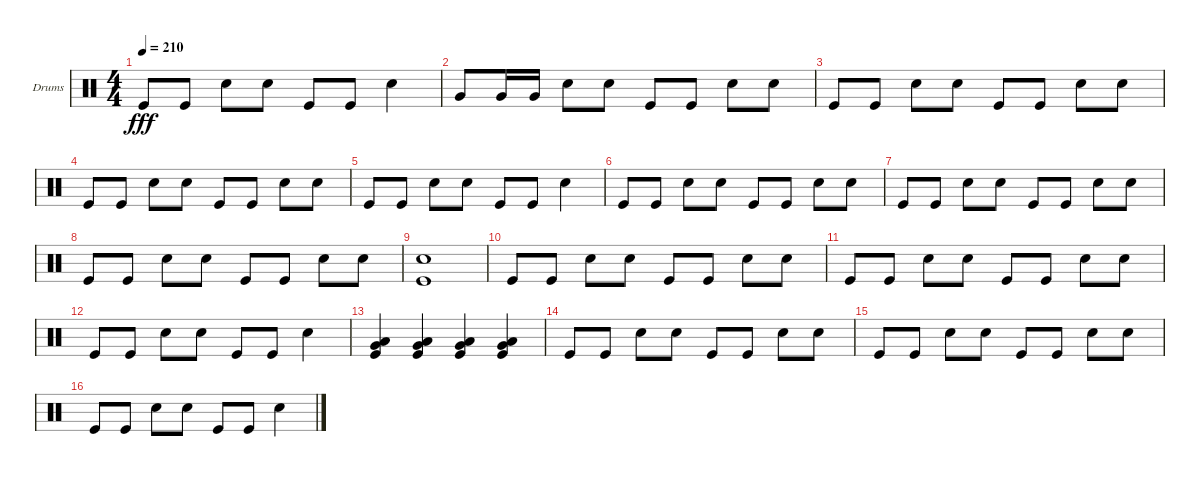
\defaultSystemsLayout 4
\bracketExtendMode groupsimilarinstruments
\firstSystemTrackNameOrientation horizontal
\otherSystemsTrackNameOrientation horizontal
\track ("Helders" "Drums") {instrument percussion}
\staff {score}
\articulation defaults
\ts (4 4)
\tempo 210
\clef neutral
\ks c "Kick (hit)".8{dy fff} "Kick (hit)".8 "Snare (hit) 2".8 "Snare (hit) 2".8 "Kick (hit)".8 "Kick (hit)".8 "Snare (hit) 2".4
|
"Very Low Tom (hit)".8 "Very Low Tom (hit)".16 "Very Low Tom (hit)".16 "Snare (hit) 2".8 "Snare (hit) 2".8 "Kick (hit)".8 "Kick (hit)".8 "Snare (hit) 2".8 "Snare (hit) 2".8 |
"Kick (hit)".8 "Kick (hit)".8 "Snare (hit) 2".8 "Snare (hit) 2".8 "Kick (hit)".8 "Kick (hit)".8 "Snare (hit) 2".8 "Snare (hit) 2".8 |
"Kick (hit)".8 "Kick (hit)".8 "Snare (hit) 2".8 "Snare (hit) 2".8 "Kick (hit)".8 "Kick (hit)".8 "Snare (hit) 2".8 "Snare (hit) 2".8 |
"Kick (hit)".8 "Kick (hit)".8 "Snare (hit) 2".8 "Snare (hit) 2".8 "Kick (hit)".8 "Kick (hit)".8 "Snare (hit) 2".4 |
"Kick (hit)".8 "Kick (hit)".8 "Snare (hit) 2".8 "Snare (hit) 2".8 "Kick (hit)".8 "Kick (hit)".8 "Snare (hit) 2".8 "Snare (hit) 2".8 |
"Kick (hit)".8 "Kick (hit)".8 "Snare (hit) 2".8 "Snare (hit) 2".8 "Kick (hit)".8 "Kick (hit)".8 "Snare (hit) 2".8 "Snare (hit) 2".8 |
"Kick (hit)".8 "Kick (hit)".8 "Snare (hit) 2".8 "Snare (hit) 2".8 "Kick (hit)".8 "Kick (hit)".8 "Snare (hit) 2".8 "Snare (hit) 2".8 |
("Kick (hit)" "Snare (hit) 2").1 |
"Kick (hit)".8 "Kick (hit)".8 "Snare (hit) 2".8 "Snare (hit) 2".8 "Kick (hit)".8 "Kick (hit)".8 "Snare (hit) 2".8 "Snare (hit) 2".8 |
"Kick (hit)".8 "Kick (hit)".8 "Snare (hit) 2".8 "Snare (hit) 2".8 "Kick (hit)".8 "Kick (hit)".8 "Snare (hit) 2".8 "Snare (hit) 2".8 |
"Kick (hit)".8 "Kick (hit)".8 "Snare (hit) 2".8 "Snare (hit) 2".8 "Kick (hit)".8 "Kick (hit)".8 "Snare (hit) 2".4 |
("Kick (hit)" "Very Low Tom (hit)" "Low Tom (hit)").4 ("Kick (hit)" "Very Low Tom (hit)" "Low Tom (hit)").4 ("Kick (hit)" "Very Low Tom (hit)" "Low Tom (hit)").4 ("Kick (hit)" "Very Low Tom (hit)" "Low Tom (hit)").4 |
"Kick (hit)".8 "Kick (hit)".8 "Snare (hit) 2".8 "Snare (hit) 2".8 "Kick (hit)".8 "Kick (hit)".8 "Snare (hit) 2".8 "Snare (hit) 2".8 |
"Kick (hit)".8 "Kick (hit)".8 "Snare (hit) 2".8 "Snare (hit) 2".8 "Kick (hit)".8 "Kick (hit)".8 "Snare (hit) 2".8 "Snare (hit) 2".8 |
"Kick (hit)".8 "Kick (hit)".8 "Snare (hit) 2".8 "Snare (hit) 2".8 "Kick (hit)".8 "Kick (hit)".8 "Snare (hit) 2".4
